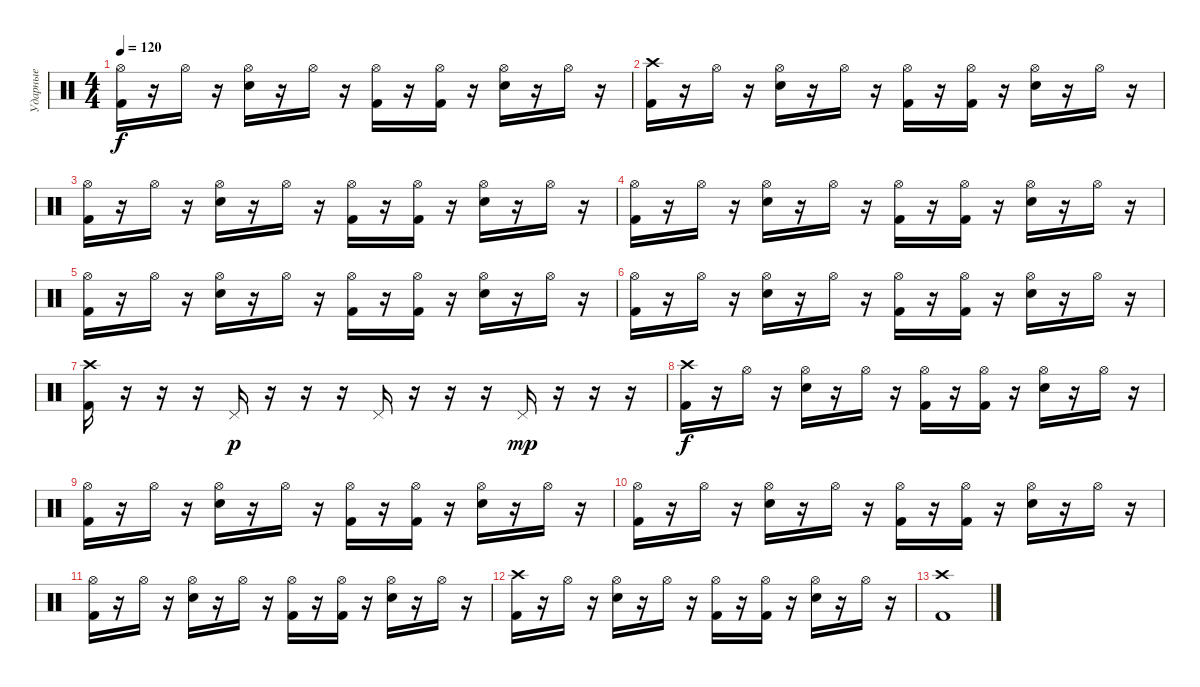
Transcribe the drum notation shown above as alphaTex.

\track ("Ударные" "Ударные") {instrument percussion}
\staff {score}
\articulation defaults
\ts (4 4)
\tempo 120
\clef neutral
\ks c
("Hi-Hat (open)" "Kick (hit) 2").16{dy f} r.16 "Hi-Hat (open)".16 r.16 ("Hi-Hat (open)" "Electric Snare (hit)").16 r.16 "Hi-Hat (open)".16 r.16 ("Hi-Hat (open)" "Kick (hit) 2").16 r.16 ("Hi-Hat (open)" "Kick (hit) 2").16 r.16 ("Hi-Hat (open)" "Electric Snare (hit)").16 r.16 "Hi-Hat (open)".16 r.16 |
("Crash high (hit)" "Kick (hit) 2").16 r.16 "Hi-Hat (open)".16 r.16 ("Hi-Hat (open)" "Electric Snare (hit)").16 r.16 "Hi-Hat (open)".16 r.16 ("Hi-Hat (open)" "Kick (hit) 2").16 r.16 ("Hi-Hat (open)" "Kick (hit) 2").16 r.16 ("Hi-Hat (open)" "Electric Snare (hit)").16 r.16 "Hi-Hat (open)".16 r.16 |
("Hi-Hat (open)" "Kick (hit) 2").16 r.16 "Hi-Hat (open)".16 r.16 ("Hi-Hat (open)" "Electric Snare (hit)").16 r.16 "Hi-Hat (open)".16 r.16 ("Hi-Hat (open)" "Kick (hit) 2").16 r.16 ("Hi-Hat (open)" "Kick (hit) 2").16 r.16 ("Hi-Hat (open)" "Electric Snare (hit)").16 r.16 "Hi-Hat (open)".16 r.16 |
("Hi-Hat (open)" "Kick (hit) 2").16 r.16 "Hi-Hat (open)".16 r.16 ("Hi-Hat (open)" "Electric Snare (hit)").16 r.16 "Hi-Hat (open)".16 r.16 ("Hi-Hat (open)" "Kick (hit) 2").16 r.16 ("Hi-Hat (open)" "Kick (hit) 2").16 r.16 ("Hi-Hat (open)" "Electric Snare (hit)").16 r.16 "Hi-Hat (open)".16 r.16 |
("Hi-Hat (open)" "Kick (hit) 2").16 r.16 "Hi-Hat (open)".16 r.16 ("Hi-Hat (open)" "Electric Snare (hit)").16 r.16 "Hi-Hat (open)".16 r.16 ("Hi-Hat (open)" "Kick (hit) 2").16 r.16 ("Hi-Hat (open)" "Kick (hit) 2").16 r.16 ("Hi-Hat (open)" "Electric Snare (hit)").16 r.16 "Hi-Hat (open)".16 r.16 |
("Hi-Hat (open)" "Kick (hit) 2").16 r.16 "Hi-Hat (open)".16 r.16 ("Hi-Hat (open)" "Electric Snare (hit)").16 r.16 "Hi-Hat (open)".16 r.16 ("Hi-Hat (open)" "Kick (hit) 2").16 r.16 ("Hi-Hat (open)" "Kick (hit) 2").16 r.16 ("Hi-Hat (open)" "Electric Snare (hit)").16 r.16 "Hi-Hat (open)".16 r.16 |
("Crash high (hit)" "Kick (hit) 2").16 r.16 r.16 r.16 "Pedal Hi-Hat (hit)".16{dy p} r.16 r.16 r.16 "Pedal Hi-Hat (hit)".16 r.16 r.16 r.16 "Pedal Hi-Hat (hit)".16{dy mp} r.16 r.16 r.16 |
("Crash high (hit)" "Kick (hit) 2").16{dy f} r.16 "Hi-Hat (open)".16 r.16 ("Hi-Hat (open)" "Electric Snare (hit)").16 r.16 "Hi-Hat (open)".16 r.16 ("Hi-Hat (open)" "Kick (hit) 2").16 r.16 ("Hi-Hat (open)" "Kick (hit) 2").16 r.16 ("Hi-Hat (open)" "Electric Snare (hit)").16 r.16 "Hi-Hat (open)".16 r.16 |
("Hi-Hat (open)" "Kick (hit) 2").16 r.16 "Hi-Hat (open)".16 r.16 ("Hi-Hat (open)" "Electric Snare (hit)").16 r.16 "Hi-Hat (open)".16 r.16 ("Hi-Hat (open)" "Kick (hit) 2").16 r.16 ("Hi-Hat (open)" "Kick (hit) 2").16 r.16 ("Hi-Hat (open)" "Electric Snare (hit)").16 r.16 "Hi-Hat (open)".16 r.16 |
("Hi-Hat (open)" "Kick (hit) 2").16 r.16 "Hi-Hat (open)".16 r.16 ("Hi-Hat (open)" "Electric Snare (hit)").16 r.16 "Hi-Hat (open)".16 r.16 ("Hi-Hat (open)" "Kick (hit) 2").16 r.16 ("Hi-Hat (open)" "Kick (hit) 2").16 r.16 ("Hi-Hat (open)" "Electric Snare (hit)").16 r.16 "Hi-Hat (open)".16 r.16 |
("Hi-Hat (open)" "Kick (hit) 2").16 r.16 "Hi-Hat (open)".16 r.16 ("Hi-Hat (open)" "Electric Snare (hit)").16 r.16 "Hi-Hat (open)".16 r.16 ("Hi-Hat (open)" "Kick (hit) 2").16 r.16 ("Hi-Hat (open)" "Kick (hit) 2").16 r.16 ("Hi-Hat (open)" "Electric Snare (hit)").16 r.16 "Hi-Hat (open)".16 r.16 |
("Crash high (hit)" "Kick (hit) 2").16 r.16 "Hi-Hat (open)".16 r.16 ("Hi-Hat (open)" "Electric Snare (hit)").16 r.16 "Hi-Hat (open)".16 r.16 ("Hi-Hat (open)" "Kick (hit) 2").16 r.16 ("Hi-Hat (open)" "Kick (hit) 2").16 r.16 ("Hi-Hat (open)" "Electric Snare (hit)").16 r.16 "Hi-Hat (open)".16 r.16 |
("Crash high (hit)" "Kick (hit) 2").1
